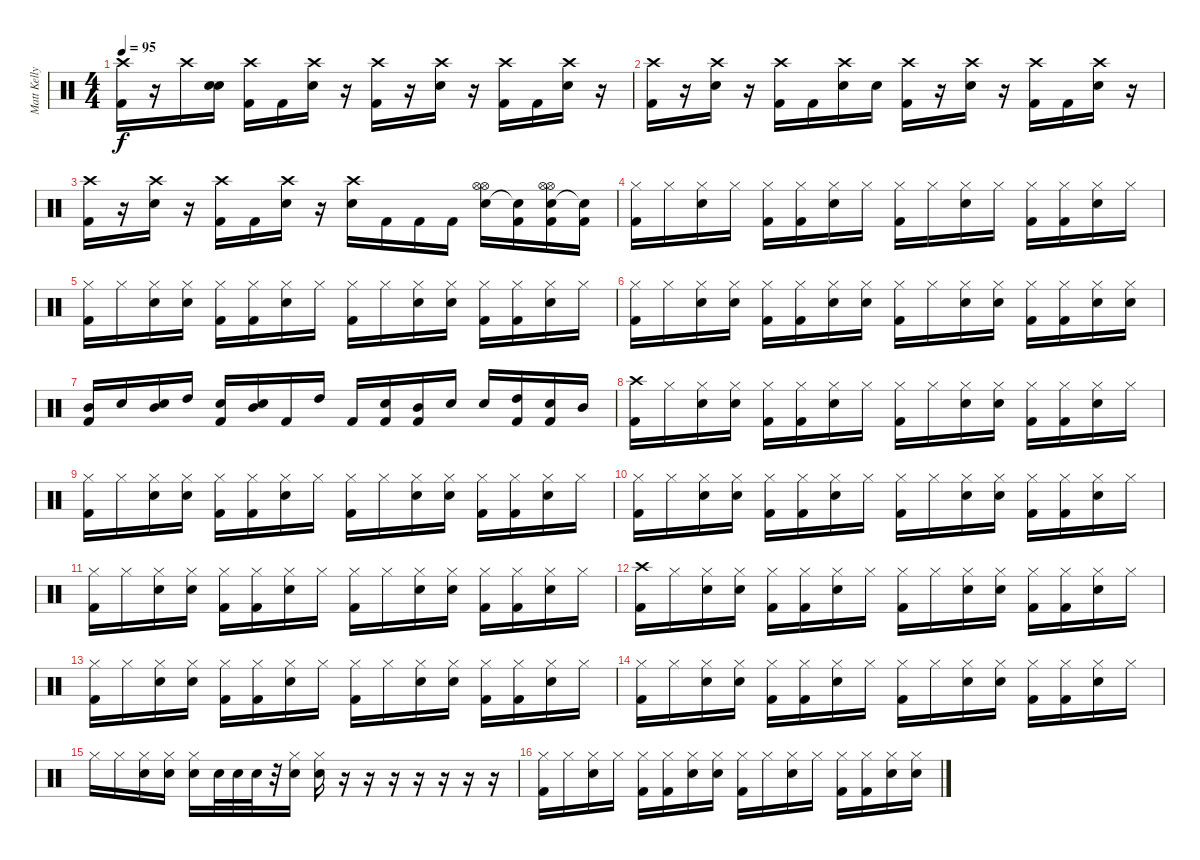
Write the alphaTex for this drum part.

\track ("Matt Kelly - Drums" "Matt Kelly") {instrument percussion}
\staff {score}
\articulation defaults
\ts (4 4)
\tempo 95
\clef neutral
\ks c
("Crash high (hit)" "Kick (hit) 2").16{dy f} r.16 "Crash high (hit)".16 ("Electric Snare (hit)" "Electric Snare (hit)").16 ("Crash high (hit)" "Kick (hit) 2").16 "Kick (hit) 2".16 ("Crash high (hit)" "Electric Snare (hit)").16 r.16 ("Crash high (hit)" "Kick (hit) 2").16 r.16 ("Crash high (hit)" "Electric Snare (hit)").16 r.16 ("Crash high (hit)" "Kick (hit) 2").16 "Kick (hit) 2".16 ("Crash high (hit)" "Electric Snare (hit)").16 r.16 |
("Crash high (hit)" "Kick (hit) 2").16 r.16 ("Crash high (hit)" "Electric Snare (hit)").16 r.16 ("Crash high (hit)" "Kick (hit) 2").16 "Kick (hit) 2".16 ("Crash high (hit)" "Electric Snare (hit)").16 "Electric Snare (hit)".16 ("Crash high (hit)" "Kick (hit) 2").16 r.16 ("Crash high (hit)" "Electric Snare (hit)").16 r.16 ("Crash high (hit)" "Kick (hit) 2").16 "Kick (hit) 2".16 ("Crash high (hit)" "Electric Snare (hit)").16 r.16 |
("Crash high (hit)" "Kick (hit) 2").16 r.16 ("Crash high (hit)" "Electric Snare (hit)").16 r.16 ("Crash high (hit)" "Kick (hit) 2").16 "Kick (hit) 2".16 ("Crash high (hit)" "Electric Snare (hit)").16 r.16 ("Crash high (hit)" "Electric Snare (hit)").16 "Kick (hit) 2".16 "Kick (hit) 2".16 "Kick (hit) 2".16 ("Hi-Hat (open)" "Electric Snare (hit)" "Hi-Hat (open)").16 ("Kick (hit) 2" "Snare (hit)"{t}).16 ("Hi-Hat (open)" "Electric Snare (hit)" "Kick (hit) 2" "Hi-Hat (open)").16 ("Kick (hit) 2" "Snare (hit)"{t}).16 |
("Hi-Hat (closed)" "Kick (hit) 2").16 "Hi-Hat (closed)".16 ("Hi-Hat (closed)" "Electric Snare (hit)").16 "Hi-Hat (closed)".16 ("Hi-Hat (closed)" "Kick (hit) 2").16 ("Hi-Hat (closed)" "Kick (hit) 2").16 ("Hi-Hat (closed)" "Electric Snare (hit)").16 "Hi-Hat (closed)".16 ("Hi-Hat (closed)" "Kick (hit) 2").16 "Hi-Hat (closed)".16 ("Hi-Hat (closed)" "Electric Snare (hit)").16 "Hi-Hat (closed)".16 ("Hi-Hat (closed)" "Kick (hit) 2").16 ("Hi-Hat (closed)" "Kick (hit) 2").16 ("Hi-Hat (closed)" "Electric Snare (hit)").16 "Hi-Hat (closed)".16 |
("Hi-Hat (closed)" "Kick (hit) 2").16 "Hi-Hat (closed)".16 ("Hi-Hat (closed)" "Electric Snare (hit)").16 ("Hi-Hat (closed)" "Electric Snare (hit)").16 ("Hi-Hat (closed)" "Kick (hit) 2").16 ("Hi-Hat (closed)" "Kick (hit) 2").16 ("Hi-Hat (closed)" "Electric Snare (hit)").16 "Hi-Hat (closed)".16 ("Hi-Hat (closed)" "Kick (hit) 2").16 "Hi-Hat (closed)".16 ("Hi-Hat (closed)" "Electric Snare (hit)").16 ("Hi-Hat (closed)" "Electric Snare (hit)").16 ("Hi-Hat (closed)" "Kick (hit) 2").16 ("Hi-Hat (closed)" "Kick (hit) 2").16 ("Hi-Hat (closed)" "Electric Snare (hit)").16 "Hi-Hat (closed)".16 |
("Hi-Hat (closed)" "Kick (hit) 2").16 "Hi-Hat (closed)".16 ("Hi-Hat (closed)" "Electric Snare (hit)").16 ("Hi-Hat (closed)" "Electric Snare (hit)").16 ("Hi-Hat (closed)" "Kick (hit) 2").16 ("Hi-Hat (closed)" "Kick (hit) 2").16 ("Hi-Hat (closed)" "Electric Snare (hit)").16 ("Hi-Hat (closed)" "Electric Snare (hit)").16 ("Hi-Hat (closed)" "Kick (hit) 2").16 "Hi-Hat (closed)".16 ("Hi-Hat (closed)" "Electric Snare (hit)").16 ("Hi-Hat (closed)" "Electric Snare (hit)").16 ("Hi-Hat (closed)" "Kick (hit) 2").16 ("Hi-Hat (closed)" "Kick (hit) 2").16 ("Hi-Hat (closed)" "Electric Snare (hit)").16 ("Hi-Hat (closed)" "Electric Snare (hit)").16 |
("Mid Tom (hit)" "Kick (hit) 2").16 "Electric Snare (hit)".16 ("Electric Snare (hit)" "Mid Tom (hit)").16 "High Tom (hit)".16 ("Electric Snare (hit)" "Kick (hit) 2").16 ("Electric Snare (hit)" "Mid Tom (hit)").16 "Kick (hit) 2".16 "High Tom (hit)".16 "Kick (hit) 2".16 ("Electric Snare (hit)" "Kick (hit) 2").16 ("Mid Tom (hit)" "Kick (hit) 2").16 "Electric Snare (hit)".16 "Electric Snare (hit)".16 ("High Tom (hit)" "Kick (hit) 2").16 ("Electric Snare (hit)" "Kick (hit) 2").16 "Mid Tom (hit)".16 |
("Crash high (hit)" "Kick (hit) 2").16 "Hi-Hat (closed)".16 ("Hi-Hat (closed)" "Electric Snare (hit)").16 ("Hi-Hat (closed)" "Electric Snare (hit)").16 ("Hi-Hat (closed)" "Kick (hit) 2").16 ("Hi-Hat (closed)" "Kick (hit) 2").16 ("Hi-Hat (closed)" "Electric Snare (hit)").16 "Hi-Hat (closed)".16 ("Hi-Hat (closed)" "Kick (hit) 2").16 "Hi-Hat (closed)".16 ("Hi-Hat (closed)" "Electric Snare (hit)").16 ("Hi-Hat (closed)" "Electric Snare (hit)").16 ("Hi-Hat (closed)" "Kick (hit) 2").16 ("Hi-Hat (closed)" "Kick (hit) 2").16 ("Hi-Hat (closed)" "Electric Snare (hit)").16 "Hi-Hat (closed)".16 |
("Hi-Hat (closed)" "Kick (hit) 2").16 "Hi-Hat (closed)".16 ("Hi-Hat (closed)" "Electric Snare (hit)").16 ("Hi-Hat (closed)" "Electric Snare (hit)").16 ("Hi-Hat (closed)" "Kick (hit) 2").16 ("Hi-Hat (closed)" "Kick (hit) 2").16 ("Hi-Hat (closed)" "Electric Snare (hit)").16 "Hi-Hat (closed)".16 ("Hi-Hat (closed)" "Kick (hit) 2").16 "Hi-Hat (closed)".16 ("Hi-Hat (closed)" "Electric Snare (hit)").16 ("Hi-Hat (closed)" "Electric Snare (hit)").16 ("Hi-Hat (closed)" "Kick (hit) 2").16 ("Hi-Hat (closed)" "Kick (hit) 2").16 ("Hi-Hat (closed)" "Electric Snare (hit)").16 "Hi-Hat (closed)".16 |
("Hi-Hat (closed)" "Kick (hit) 2").16 "Hi-Hat (closed)".16 ("Hi-Hat (closed)" "Electric Snare (hit)").16 ("Hi-Hat (closed)" "Electric Snare (hit)").16 ("Hi-Hat (closed)" "Kick (hit) 2").16 ("Hi-Hat (closed)" "Kick (hit) 2").16 ("Hi-Hat (closed)" "Electric Snare (hit)").16 "Hi-Hat (closed)".16 ("Hi-Hat (closed)" "Kick (hit) 2").16 "Hi-Hat (closed)".16 ("Hi-Hat (closed)" "Electric Snare (hit)").16 ("Hi-Hat (closed)" "Electric Snare (hit)").16 ("Hi-Hat (closed)" "Kick (hit) 2").16 ("Hi-Hat (closed)" "Kick (hit) 2").16 ("Hi-Hat (closed)" "Electric Snare (hit)").16 "Hi-Hat (closed)".16 |
("Hi-Hat (closed)" "Kick (hit) 2").16 "Hi-Hat (closed)".16 ("Hi-Hat (closed)" "Electric Snare (hit)").16 ("Hi-Hat (closed)" "Electric Snare (hit)").16 ("Hi-Hat (closed)" "Kick (hit) 2").16 ("Hi-Hat (closed)" "Kick (hit) 2").16 ("Hi-Hat (closed)" "Electric Snare (hit)").16 "Hi-Hat (closed)".16 ("Hi-Hat (closed)" "Kick (hit) 2").16 "Hi-Hat (closed)".16 ("Hi-Hat (closed)" "Electric Snare (hit)").16 ("Hi-Hat (closed)" "Electric Snare (hit)").16 ("Hi-Hat (closed)" "Kick (hit) 2").16 ("Hi-Hat (closed)" "Kick (hit) 2").16 ("Hi-Hat (closed)" "Electric Snare (hit)").16 "Hi-Hat (closed)".16 |
("Crash high (hit)" "Kick (hit) 2").16 "Hi-Hat (closed)".16 ("Hi-Hat (closed)" "Electric Snare (hit)").16 ("Hi-Hat (closed)" "Electric Snare (hit)").16 ("Hi-Hat (closed)" "Kick (hit) 2").16 ("Hi-Hat (closed)" "Kick (hit) 2").16 ("Hi-Hat (closed)" "Electric Snare (hit)").16 "Hi-Hat (closed)".16 ("Hi-Hat (closed)" "Kick (hit) 2").16 "Hi-Hat (closed)".16 ("Hi-Hat (closed)" "Electric Snare (hit)").16 ("Hi-Hat (closed)" "Electric Snare (hit)").16 ("Hi-Hat (closed)" "Kick (hit) 2").16 ("Hi-Hat (closed)" "Kick (hit) 2").16 ("Hi-Hat (closed)" "Electric Snare (hit)").16 "Hi-Hat (closed)".16 |
("Hi-Hat (closed)" "Kick (hit) 2").16 "Hi-Hat (closed)".16 ("Hi-Hat (closed)" "Electric Snare (hit)").16 ("Hi-Hat (closed)" "Electric Snare (hit)").16 ("Hi-Hat (closed)" "Kick (hit) 2").16 ("Hi-Hat (closed)" "Kick (hit) 2").16 ("Hi-Hat (closed)" "Electric Snare (hit)").16 "Hi-Hat (closed)".16 ("Hi-Hat (closed)" "Kick (hit) 2").16 "Hi-Hat (closed)".16 ("Hi-Hat (closed)" "Electric Snare (hit)").16 ("Hi-Hat (closed)" "Electric Snare (hit)").16 ("Hi-Hat (closed)" "Kick (hit) 2").16 ("Hi-Hat (closed)" "Kick (hit) 2").16 ("Hi-Hat (closed)" "Electric Snare (hit)").16 "Hi-Hat (closed)".16 |
("Hi-Hat (closed)" "Kick (hit) 2").16 "Hi-Hat (closed)".16 ("Hi-Hat (closed)" "Electric Snare (hit)").16 ("Hi-Hat (closed)" "Electric Snare (hit)").16 ("Hi-Hat (closed)" "Kick (hit) 2").16 ("Hi-Hat (closed)" "Kick (hit) 2").16 ("Hi-Hat (closed)" "Electric Snare (hit)").16 "Hi-Hat (closed)".16 ("Hi-Hat (closed)" "Kick (hit) 2").16 "Hi-Hat (closed)".16 ("Hi-Hat (closed)" "Electric Snare (hit)").16 ("Hi-Hat (closed)" "Electric Snare (hit)").16 ("Hi-Hat (closed)" "Kick (hit) 2").16 ("Hi-Hat (closed)" "Kick (hit) 2").16 ("Hi-Hat (closed)" "Electric Snare (hit)").16 "Hi-Hat (closed)".16 |
"Hi-Hat (closed)".16 "Hi-Hat (closed)".16 ("Hi-Hat (closed)" "Electric Snare (hit)").16 ("Hi-Hat (closed)" "Electric Snare (hit)").16 ("Hi-Hat (closed)" "Electric Snare (hit)").16 "Electric Snare (hit)".32 "Electric Snare (hit)".32 "Electric Snare (hit)".32 r.32 ("Hi-Hat (closed)" "Electric Snare (hit)").16 ("Hi-Hat (closed)" "Electric Snare (hit)").16 r.16 r.16 r.16 r.16 r.16 r.16 r.16 |
("Hi-Hat (closed)" "Kick (hit) 2").16 "Hi-Hat (closed)".16 ("Hi-Hat (closed)" "Electric Snare (hit)").16 "Hi-Hat (closed)".16 ("Hi-Hat (closed)" "Kick (hit) 2").16 ("Hi-Hat (closed)" "Kick (hit) 2").16 ("Hi-Hat (closed)" "Electric Snare (hit)").16 ("Hi-Hat (closed)" "Electric Snare (hit)").16 ("Hi-Hat (closed)" "Kick (hit) 2").16 "Hi-Hat (closed)".16 ("Hi-Hat (closed)" "Electric Snare (hit)").16 "Hi-Hat (closed)".16 ("Hi-Hat (closed)" "Kick (hit) 2").16 ("Hi-Hat (closed)" "Kick (hit) 2").16 ("Hi-Hat (closed)" "Electric Snare (hit)").16 ("Hi-Hat (closed)" "Electric Snare (hit)").16
